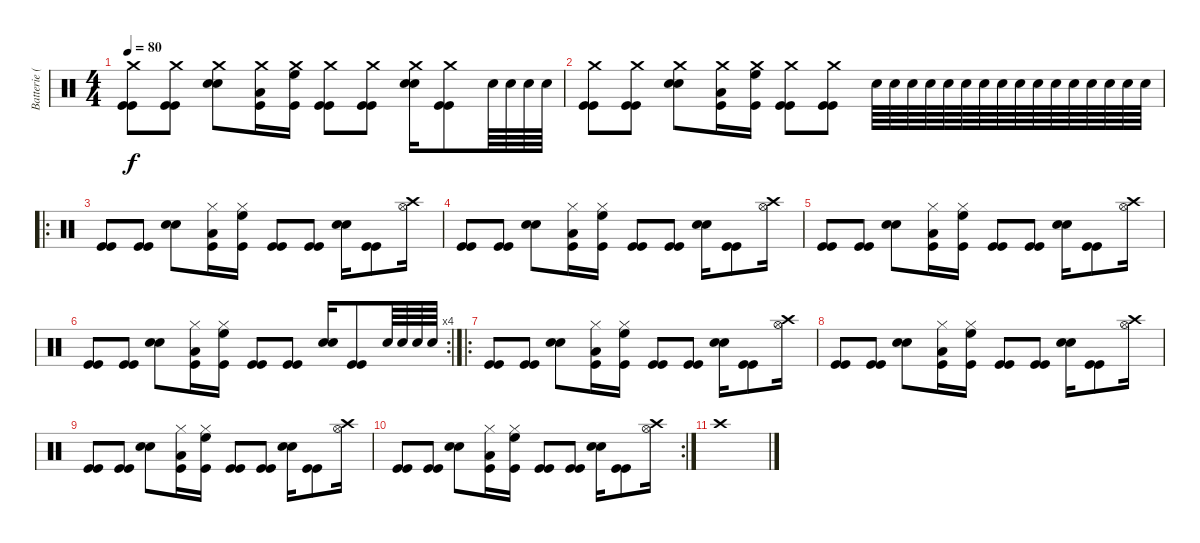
\track ("Batterie (dark)" "Batterie (") {instrument percussion}
\staff {score}
\articulation defaults
\ts (4 4)
\tempo 80
\clef neutral
\ks c
("Crash medium (hit)" "Kick (hit)" "Kick (hit)").8{dy f} ("Crash medium (hit)" "Kick (hit)" "Kick (hit)").8 ("Crash medium (hit)" "Snare (hit) 2" "Snare (hit) 2").8 ("Crash medium (hit)" "Kick (hit)" "Low Tom (hit)").16 ("Crash medium (hit)" "Kick (hit)" "High Floor Tom (hit)").16 ("Crash medium (hit)" "Kick (hit)" "Kick (hit)").8 ("Crash medium (hit)" "Kick (hit)" "Kick (hit)").8 ("Crash medium (hit)" "Snare (hit) 2" "Snare (hit) 2").16 ("Crash medium (hit)" "Kick (hit)" "Kick (hit)").8 "Snare (hit) 2".64 "Snare (hit) 2".64 "Snare (hit) 2".64 "Snare (hit) 2".64 |
("Crash medium (hit)" "Kick (hit)" "Kick (hit)").8 ("Crash medium (hit)" "Kick (hit)" "Kick (hit)").8 ("Crash medium (hit)" "Snare (hit) 2" "Snare (hit) 2").8 ("Crash medium (hit)" "Kick (hit)" "Low Tom (hit)").16 ("Crash medium (hit)" "Kick (hit)" "High Floor Tom (hit)").16 ("Crash medium (hit)" "Kick (hit)" "Kick (hit)").8 ("Crash medium (hit)" "Kick (hit)" "Kick (hit)").8 "Snare (hit) 2".64 "Snare (hit) 2".64 "Snare (hit) 2".64 "Snare (hit) 2".64 "Snare (hit) 2".64 "Snare (hit) 2".64 "Snare (hit) 2".64 "Snare (hit) 2".64 "Snare (hit) 2".64 "Snare (hit) 2".64 "Snare (hit) 2".64 "Snare (hit) 2".64 "Snare (hit) 2".64 "Snare (hit) 2".64 "Snare (hit) 2".64 "Snare (hit) 2".64 |
\ro
("Kick (hit)" "Kick (hit)").8 ("Kick (hit)" "Kick (hit)").8 ("Snare (hit) 2" "Snare (hit) 2").8 ("Hi-Hat (closed)" "Kick (hit)" "Low Tom (hit)").16 ("Hi-Hat (closed)" "Kick (hit)" "High Floor Tom (hit)").16 ("Kick (hit)" "Kick (hit)").8 ("Kick (hit)" "Kick (hit)").8 ("Snare (hit) 2" "Snare (hit) 2").16 ("Kick (hit)" "Kick (hit)").8 ("Crash high (hit)" "Hi-Hat (open)").16 |
("Kick (hit)" "Kick (hit)").8 ("Kick (hit)" "Kick (hit)").8 ("Snare (hit) 2" "Snare (hit) 2").8 ("Hi-Hat (closed)" "Kick (hit)" "Low Tom (hit)").16 ("Hi-Hat (closed)" "Kick (hit)" "High Floor Tom (hit)").16 ("Kick (hit)" "Kick (hit)").8 ("Kick (hit)" "Kick (hit)").8 ("Snare (hit) 2" "Snare (hit) 2").16 ("Kick (hit)" "Kick (hit)").8 ("Crash high (hit)" "Hi-Hat (open)").16 |
("Kick (hit)" "Kick (hit)").8 ("Kick (hit)" "Kick (hit)").8 ("Snare (hit) 2" "Snare (hit) 2").8 ("Hi-Hat (closed)" "Kick (hit)" "Low Tom (hit)").16 ("Hi-Hat (closed)" "Kick (hit)" "High Floor Tom (hit)").16 ("Kick (hit)" "Kick (hit)").8 ("Kick (hit)" "Kick (hit)").8 ("Snare (hit) 2" "Snare (hit) 2").16 ("Kick (hit)" "Kick (hit)").8 ("Crash high (hit)" "Hi-Hat (open)").16 |
\rc 4
("Kick (hit)" "Kick (hit)").8 ("Kick (hit)" "Kick (hit)").8 ("Snare (hit) 2" "Snare (hit) 2").8 ("Hi-Hat (closed)" "Kick (hit)" "Low Tom (hit)").16 ("Hi-Hat (closed)" "Kick (hit)" "High Floor Tom (hit)").16 ("Kick (hit)" "Kick (hit)").8 ("Kick (hit)" "Kick (hit)").8 ("Snare (hit) 2" "Snare (hit) 2").16 ("Kick (hit)" "Kick (hit)").8 "Snare (hit) 2".64 "Snare (hit) 2".64 "Snare (hit) 2".64 "Snare (hit) 2".64 |
\ro
("Kick (hit)" "Kick (hit)").8 ("Kick (hit)" "Kick (hit)").8 ("Snare (hit) 2" "Snare (hit) 2").8 ("Hi-Hat (closed)" "Kick (hit)" "Low Tom (hit)").16 ("Hi-Hat (closed)" "Kick (hit)" "High Floor Tom (hit)").16 ("Kick (hit)" "Kick (hit)").8 ("Kick (hit)" "Kick (hit)").8 ("Snare (hit) 2" "Snare (hit) 2").16 ("Kick (hit)" "Kick (hit)").8 ("Crash high (hit)" "Hi-Hat (open)").16 |
("Kick (hit)" "Kick (hit)").8 ("Kick (hit)" "Kick (hit)").8 ("Snare (hit) 2" "Snare (hit) 2").8 ("Hi-Hat (closed)" "Kick (hit)" "Low Tom (hit)").16 ("Hi-Hat (closed)" "Kick (hit)" "High Floor Tom (hit)").16 ("Kick (hit)" "Kick (hit)").8 ("Kick (hit)" "Kick (hit)").8 ("Snare (hit) 2" "Snare (hit) 2").16 ("Kick (hit)" "Kick (hit)").8 ("Crash high (hit)" "Hi-Hat (open)").16 |
("Kick (hit)" "Kick (hit)").8 ("Kick (hit)" "Kick (hit)").8 ("Snare (hit) 2" "Snare (hit) 2").8 ("Hi-Hat (closed)" "Kick (hit)" "Low Tom (hit)").16 ("Hi-Hat (closed)" "Kick (hit)" "High Floor Tom (hit)").16 ("Kick (hit)" "Kick (hit)").8 ("Kick (hit)" "Kick (hit)").8 ("Snare (hit) 2" "Snare (hit) 2").16 ("Kick (hit)" "Kick (hit)").8 ("Crash high (hit)" "Hi-Hat (open)").16 |
\rc 2
("Kick (hit)" "Kick (hit)").8 ("Kick (hit)" "Kick (hit)").8 ("Snare (hit) 2" "Snare (hit) 2").8 ("Hi-Hat (closed)" "Kick (hit)" "Low Tom (hit)").16 ("Hi-Hat (closed)" "Kick (hit)" "High Floor Tom (hit)").16 ("Kick (hit)" "Kick (hit)").8 ("Kick (hit)" "Kick (hit)").8 ("Snare (hit) 2" "Snare (hit) 2").16 ("Kick (hit)" "Kick (hit)").8 ("Crash high (hit)" "Hi-Hat (open)").16 |
"Crash high (hit)".1
